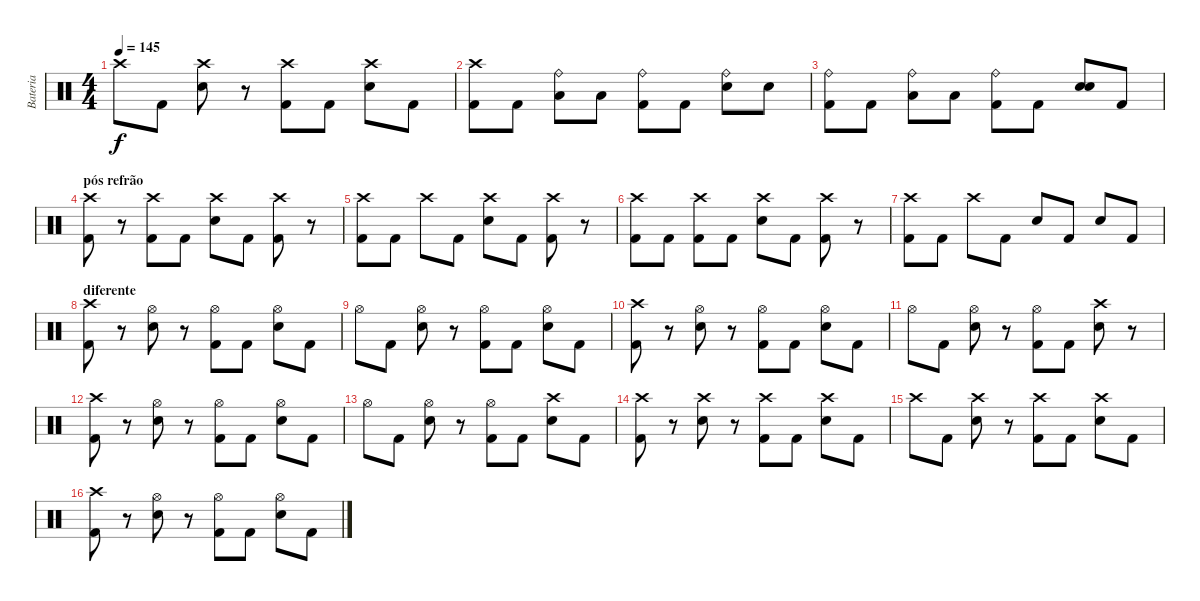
\track ("Bateria" "Bateria") {instrument percussion}
\staff {score}
\articulation defaults
\ts (4 4)
\tempo 145
\clef neutral
\ks c "Crash high (hit)".8{dy f} "Kick (hit) 2".8
("Crash high (hit)" "Electric Snare (hit)").8 r.8 ("Crash high (hit)" "Kick (hit) 2").8 "Kick (hit) 2".8 ("Crash high (hit)" "Electric Snare (hit)").8 "Kick (hit) 2".8 |
("Crash high (hit)" "Kick (hit) 2").8 "Kick (hit) 2".8 ("Ride (bell)" "Low Tom (hit)").8 "Low Tom (hit)".8 ("Ride (bell)" "Kick (hit) 2").8 "Kick (hit) 2".8 ("Ride (bell)" "Electric Snare (hit)").8 "Electric Snare (hit)".8 |
("Ride (bell)" "Kick (hit) 2").8 "Kick (hit) 2".8 ("Ride (bell)" "Low Tom (hit)").8 "Low Tom (hit)".8 ("Ride (bell)" "Kick (hit) 2").8 "Kick (hit) 2".8 ("Electric Snare (hit)" "Electric Snare (hit)").8 "Kick (hit) 2".8 |
\section ("" "pós refrão")
("Crash high (hit)" "Kick (hit) 2").8 r.8 ("Crash high (hit)" "Kick (hit) 2").8 "Kick (hit) 2".8 ("Crash high (hit)" "Electric Snare (hit)").8 "Kick (hit) 2".8 ("Crash high (hit)" "Kick (hit) 2").8 r.8 |
("Crash high (hit)" "Kick (hit) 2").8 "Kick (hit) 2".8 "Crash high (hit)".8 "Kick (hit) 2".8 ("Crash high (hit)" "Electric Snare (hit)").8 "Kick (hit) 2".8 ("Crash high (hit)" "Kick (hit) 2").8 r.8 |
("Crash high (hit)" "Kick (hit) 2").8 "Kick (hit) 2".8 ("Crash high (hit)" "Kick (hit) 2").8 "Kick (hit) 2".8 ("Crash high (hit)" "Electric Snare (hit)").8 "Kick (hit) 2".8 ("Crash high (hit)" "Kick (hit) 2").8 r.8 |
("Crash high (hit)" "Kick (hit) 2").8 "Kick (hit) 2".8 "Crash high (hit)".8 "Kick (hit) 2".8 "Electric Snare (hit)".8 "Kick (hit) 2".8 "Electric Snare (hit)".8 "Kick (hit) 2".8 |
\section ("" "diferente")
("Crash high (hit)" "Kick (hit) 2").8 r.8 ("Hi-Hat (open)" "Electric Snare (hit)").8 r.8 ("Hi-Hat (open)" "Kick (hit) 2").8 "Kick (hit) 2".8 ("Hi-Hat (open)" "Electric Snare (hit)").8 "Kick (hit) 2".8 |
"Hi-Hat (open)".8 "Kick (hit) 2".8 ("Hi-Hat (open)" "Electric Snare (hit)").8 r.8 ("Hi-Hat (open)" "Kick (hit) 2").8 "Kick (hit) 2".8 ("Hi-Hat (open)" "Electric Snare (hit)").8 "Kick (hit) 2".8 |
("Crash high (hit)" "Kick (hit) 2").8 r.8 ("Hi-Hat (open)" "Electric Snare (hit)").8 r.8 ("Hi-Hat (open)" "Kick (hit) 2").8 "Kick (hit) 2".8 ("Hi-Hat (open)" "Electric Snare (hit)").8 "Kick (hit) 2".8 |
"Hi-Hat (open)".8 "Kick (hit) 2".8 ("Hi-Hat (open)" "Electric Snare (hit)").8 r.8 ("Hi-Hat (open)" "Kick (hit) 2").8 "Kick (hit) 2".8 ("Crash high (hit)" "Electric Snare (hit)").8 r.8 |
("Crash high (hit)" "Kick (hit) 2").8 r.8 ("Hi-Hat (open)" "Electric Snare (hit)").8 r.8 ("Hi-Hat (open)" "Kick (hit) 2").8 "Kick (hit) 2".8 ("Hi-Hat (open)" "Electric Snare (hit)").8 "Kick (hit) 2".8 |
"Hi-Hat (open)".8 "Kick (hit) 2".8 ("Hi-Hat (open)" "Electric Snare (hit)").8 r.8 ("Hi-Hat (open)" "Kick (hit) 2").8 "Kick (hit) 2".8 ("Crash high (hit)" "Electric Snare (hit)").8 "Kick (hit) 2".8 |
("Crash high (hit)" "Kick (hit) 2").8 r.8 ("Crash high (hit)" "Electric Snare (hit)").8 r.8 ("Crash high (hit)" "Kick (hit) 2").8 "Kick (hit) 2".8 ("Crash high (hit)" "Electric Snare (hit)").8 "Kick (hit) 2".8 |
"Crash high (hit)".8 "Kick (hit) 2".8 ("Crash high (hit)" "Electric Snare (hit)").8 r.8 ("Crash high (hit)" "Kick (hit) 2").8 "Kick (hit) 2".8 ("Crash high (hit)" "Electric Snare (hit)").8 "Kick (hit) 2".8 |
("Crash high (hit)" "Kick (hit) 2").8 r.8 ("Hi-Hat (open)" "Electric Snare (hit)").8 r.8 ("Hi-Hat (open)" "Kick (hit) 2").8 "Kick (hit) 2".8 ("Hi-Hat (open)" "Electric Snare (hit)").8 "Kick (hit) 2".8
